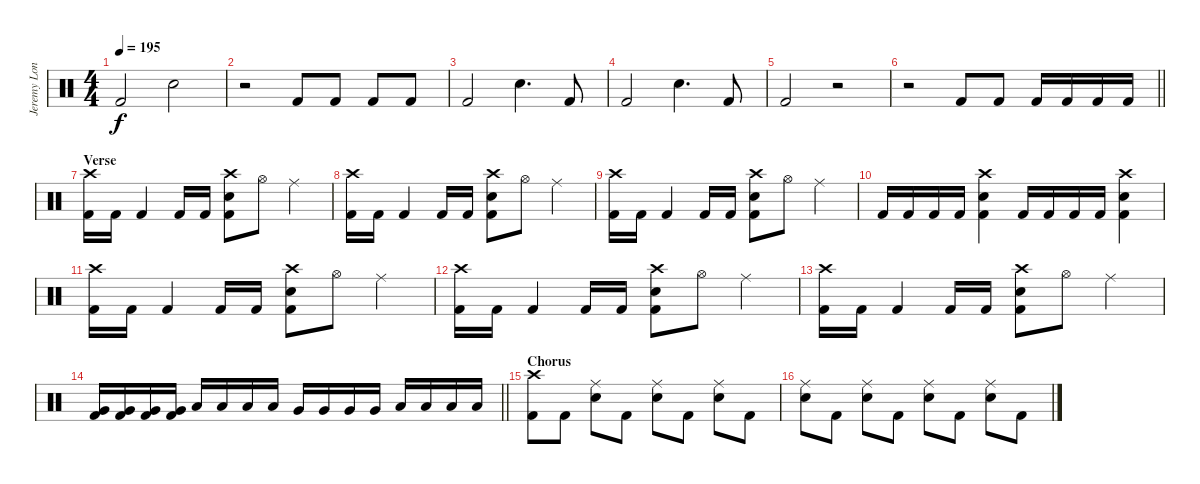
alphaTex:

\track ("Jeremy London" "Jeremy Lon") {instrument percussion}
\staff {score}
\articulation defaults
\ts (4 4)
\tempo 195
\clef neutral
\ks c "Kick (hit) 2".2{dy f} "Electric Snare (hit)".2
|
r.2 "Kick (hit) 2".8 "Kick (hit) 2".8 "Kick (hit) 2".8 "Kick (hit) 2".8 |
"Kick (hit) 2".2 "Electric Snare (hit)".4{d} "Kick (hit) 2".8 |
"Kick (hit) 2".2 "Electric Snare (hit)".4{d} "Kick (hit) 2".8 |
"Kick (hit) 2".2 r.2 |
\barLineRight lightlight
r.2 "Kick (hit) 2".8 "Kick (hit) 2".8 "Kick (hit) 2".16 "Kick (hit) 2".16 "Kick (hit) 2".16 "Kick (hit) 2".16 |
\section ("" "Verse")
("Crash high (hit)" "Kick (hit) 2").16 "Kick (hit) 2".16 "Kick (hit) 2".4 "Kick (hit) 2".16 "Kick (hit) 2".16 ("Crash high (hit)" "Electric Snare (hit)" "Kick (hit) 2").8 "Hi-Hat (open)".8 "Ride (middle)".4 |
("Crash high (hit)" "Kick (hit) 2").16 "Kick (hit) 2".16 "Kick (hit) 2".4 "Kick (hit) 2".16 "Kick (hit) 2".16 ("Crash high (hit)" "Electric Snare (hit)" "Kick (hit) 2").8 "Hi-Hat (open)".8 "Ride (middle)".4 |
("Crash high (hit)" "Kick (hit) 2").16 "Kick (hit) 2".16 "Kick (hit) 2".4 "Kick (hit) 2".16 "Kick (hit) 2".16 ("Crash high (hit)" "Electric Snare (hit)" "Kick (hit) 2").8 "Hi-Hat (open)".8 "Ride (middle)".4 |
"Kick (hit) 2".16 "Kick (hit) 2".16 "Kick (hit) 2".16 "Kick (hit) 2".16 ("Crash high (hit)" "Electric Snare (hit)" "Kick (hit) 2").4 "Kick (hit) 2".16 "Kick (hit) 2".16 "Kick (hit) 2".16 "Kick (hit) 2".16 ("Crash high (hit)" "Electric Snare (hit)" "Kick (hit) 2").4 |
("Crash high (hit)" "Kick (hit) 2").16 "Kick (hit) 2".16 "Kick (hit) 2".4 "Kick (hit) 2".16 "Kick (hit) 2".16 ("Crash high (hit)" "Electric Snare (hit)" "Kick (hit) 2").8 "Hi-Hat (open)".8 "Ride (middle)".4 |
("Crash high (hit)" "Kick (hit) 2").16 "Kick (hit) 2".16 "Kick (hit) 2".4 "Kick (hit) 2".16 "Kick (hit) 2".16 ("Crash high (hit)" "Electric Snare (hit)" "Kick (hit) 2").8 "Hi-Hat (open)".8 "Ride (middle)".4 |
("Crash high (hit)" "Kick (hit) 2").16 "Kick (hit) 2".16 "Kick (hit) 2".4 "Kick (hit) 2".16 "Kick (hit) 2".16 ("Crash high (hit)" "Electric Snare (hit)" "Kick (hit) 2").8 "Hi-Hat (open)".8 "Ride (middle)".4 |
\barLineRight lightlight
("Very Low Tom (hit)" "Kick (hit) 2").16 ("Very Low Tom (hit)" "Kick (hit) 2").16 ("Very Low Tom (hit)" "Kick (hit) 2").16 ("Very Low Tom (hit)" "Kick (hit) 2").16 "Low Tom (hit)".16 "Low Tom (hit)".16 "Low Tom (hit)".16 "Low Tom (hit)".16 "Very Low Tom (hit)".16 "Very Low Tom (hit)".16 "Very Low Tom (hit)".16 "Very Low Tom (hit)".16 "Low Floor Tom (hit)".16 "Low Floor Tom (hit)".16 "Low Floor Tom (hit)".16 "Low Floor Tom (hit)".16 |
\section ("" "Chorus")
("Crash high (hit)" "Kick (hit) 2").8 "Kick (hit) 2".8 ("Ride (middle)" "Electric Snare (hit)").8 "Kick (hit) 2".8 ("Ride (middle)" "Electric Snare (hit)").8 "Kick (hit) 2".8 ("Ride (middle)" "Electric Snare (hit)").8 "Kick (hit) 2".8 |
("Ride (middle)" "Electric Snare (hit)").8 "Kick (hit) 2".8 ("Ride (middle)" "Electric Snare (hit)").8 "Kick (hit) 2".8 ("Ride (middle)" "Electric Snare (hit)").8 "Kick (hit) 2".8 ("Ride (middle)" "Electric Snare (hit)").8 "Kick (hit) 2".8
